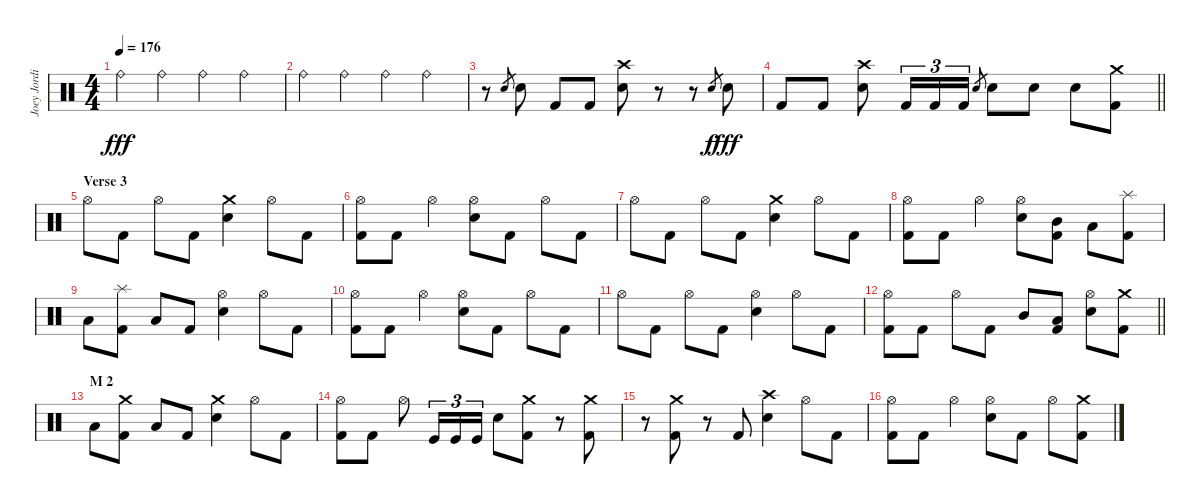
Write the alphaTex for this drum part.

\track ("Joey Jordison" "Joey Jordi") {instrument percussion}
\staff {score}
\articulation defaults
\ts (4 4)
\tempo 176
\clef neutral
\ks c "Ride (bell)".4{dy fff} "Ride (bell)".4 "Ride (bell)".4 "Ride (bell)".4
|
"Ride (bell)".4 "Ride (bell)".4 "Ride (bell)".4 "Ride (bell)".4 |
r.8 "Electric Snare (hit)".8{gr} "Electric Snare (hit)".8 "Kick (hit) 2".8 "Kick (hit) 2".8 ("Crash high (hit)" "Electric Snare (hit)").8 r.8 r.8 "Electric Snare (hit)".8{gr dy f} "Electric Snare (hit)".8{dy fff} |
\barLineRight lightlight "Kick (hit) 2".8 "Kick (hit) 2".8
("Crash high (hit)" "Electric Snare (hit)").8 "Kick (hit) 2".16{tu (3 2)} "Kick (hit) 2".16{tu (3 2)} "Kick (hit) 2".16{tu (3 2)} "Electric Snare (hit)".8{gr} "Electric Snare (hit)".8 "Electric Snare (hit)".8 "Electric Snare (hit)".8 ("Crash medium (hit)" "Kick (hit) 2").8 |
\section ("" "Verse 3")
"Hi-Hat (open)".8 "Kick (hit) 2".8 "Hi-Hat (open)".8 "Kick (hit) 2".8 ("Crash medium (hit)" "Electric Snare (hit)").4 "Hi-Hat (open)".8 "Kick (hit) 2".8 |
("Hi-Hat (open)" "Kick (hit) 2").8 "Kick (hit) 2".8 "Hi-Hat (open)".4 ("Hi-Hat (open)" "Electric Snare (hit)").8 "Kick (hit) 2".8 "Hi-Hat (open)".8 "Kick (hit) 2".8 |
"Hi-Hat (open)".8 "Kick (hit) 2".8 "Hi-Hat (open)".8 "Kick (hit) 2".8 ("Crash medium (hit)" "Electric Snare (hit)").4 "Hi-Hat (open)".8 "Kick (hit) 2".8 |
("Hi-Hat (open)" "Kick (hit) 2").8 "Kick (hit) 2".8 "Hi-Hat (open)".4 ("Hi-Hat (open)" "Electric Snare (hit)").8 ("Mid Tom (hit)" "Kick (hit) 2").8 "Low Tom (hit)".8 ("Splash (hit)" "Kick (hit) 2").8 |
"Low Floor Tom (hit)".8 ("Splash (hit)" "Kick (hit) 2").8 "Low Floor Tom (hit)".8 "Kick (hit) 2".8 ("Hi-Hat (open)" "Electric Snare (hit)").4 "Hi-Hat (open)".8 "Kick (hit) 2".8 |
("Hi-Hat (open)" "Kick (hit) 2").8 "Kick (hit) 2".8 "Hi-Hat (open)".4 ("Hi-Hat (open)" "Electric Snare (hit)").8 "Kick (hit) 2".8 "Hi-Hat (open)".8 "Kick (hit) 2".8 |
"Hi-Hat (open)".8 "Kick (hit) 2".8 "Hi-Hat (open)".8 "Kick (hit) 2".8 ("Hi-Hat (open)" "Electric Snare (hit)").4 "Hi-Hat (open)".8 "Kick (hit) 2".8 |
\barLineRight lightlight
("Hi-Hat (open)" "Kick (hit) 2").8 "Kick (hit) 2".8 "Hi-Hat (open)".8 "Kick (hit) 2".8 "Mid Tom (hit)".8 ("Low Tom (hit)" "Kick (hit) 2").8 ("Hi-Hat (open)" "Electric Snare (hit)").8 ("Crash medium (hit)" "Kick (hit) 2").8 |
\section ("" "M 2")
"Low Floor Tom (hit)".8 ("Crash medium (hit)" "Kick (hit) 2").8 "Low Floor Tom (hit)".8 "Kick (hit) 2".8 ("Crash medium (hit)" "Electric Snare (hit)").4 "Hi-Hat (open)".8 "Kick (hit) 2".8 |
("Hi-Hat (open)" "Kick (hit) 2").8 "Kick (hit) 2".8 "Hi-Hat (open)".8 "Kick (hit)".16{tu (3 2)} "Kick (hit)".16{tu (3 2)} "Kick (hit)".16{tu (3 2)} "Electric Snare (hit)".8 ("Crash medium (hit)" "Kick (hit) 2").8 r.8 ("Crash medium (hit)" "Kick (hit) 2").8 |
r.8 ("Crash medium (hit)" "Kick (hit) 2").8 r.8 "Kick (hit) 2".8 ("Crash high (hit)" "Electric Snare (hit)").4 "Hi-Hat (open)".8 "Kick (hit) 2".8 |
("Hi-Hat (open)" "Kick (hit) 2").8 "Kick (hit) 2".8 "Hi-Hat (open)".4 ("Hi-Hat (open)" "Electric Snare (hit)").8 "Kick (hit) 2".8 "Hi-Hat (open)".8 ("Crash medium (hit)" "Kick (hit) 2").8
